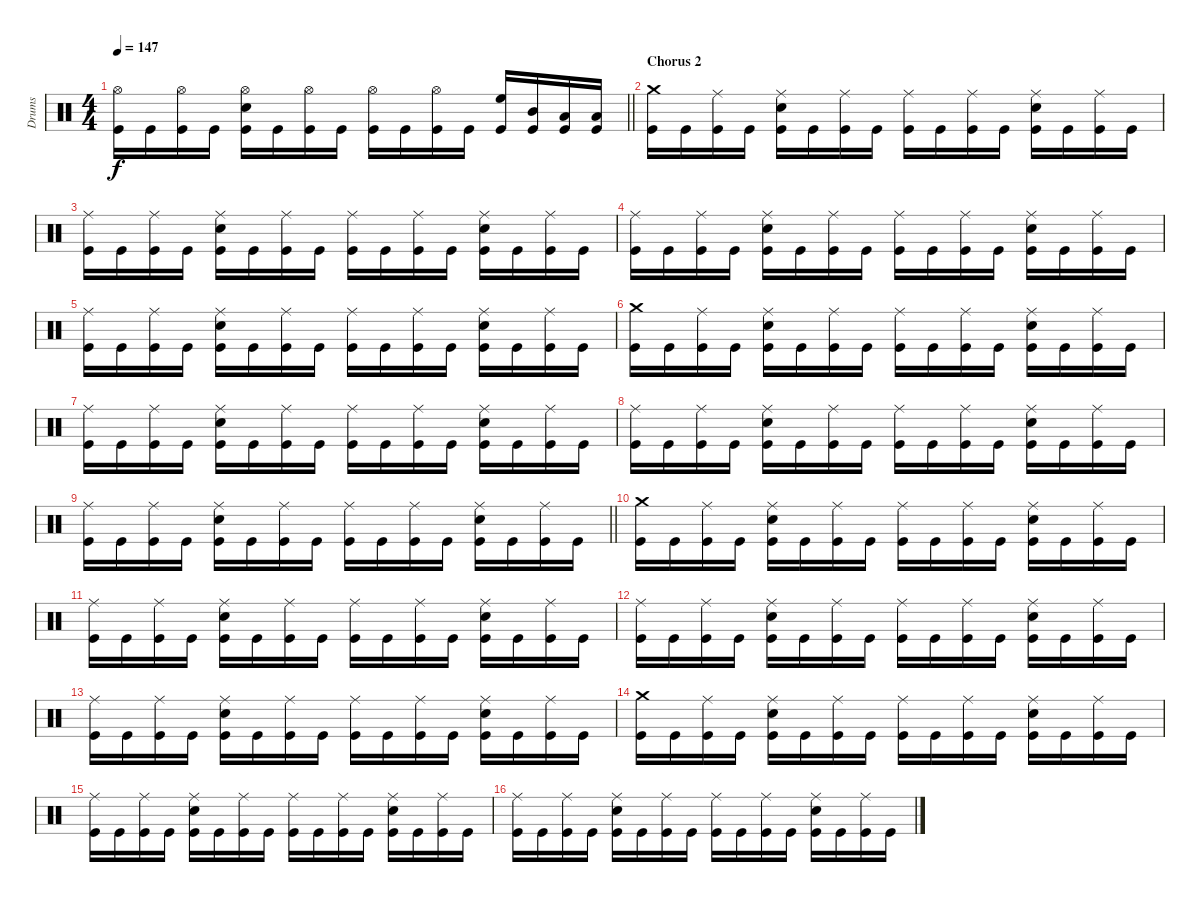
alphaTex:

\track ("Drums" "Drums") {instrument percussion}
\staff {score}
\articulation defaults
\ts (4 4)
\tempo 147
\clef neutral
\barLineRight lightlight
\ks c
("Hi-Hat (open)" "Kick (hit)").16{dy f} "Kick (hit)".16 ("Hi-Hat (open)" "Kick (hit)").16 "Kick (hit)".16 ("Electric Snare (hit)" "Hi-Hat (open)" "Kick (hit)").16 "Kick (hit)".16 ("Hi-Hat (open)" "Kick (hit)").16 "Kick (hit)".16 ("Hi-Hat (open)" "Kick (hit)").16 "Kick (hit)".16 ("Hi-Hat (open)" "Kick (hit)").16 "Kick (hit)".16 ("High Floor Tom (hit)" "Kick (hit)").16 ("Mid Tom (hit)" "Kick (hit)").16 ("Low Tom (hit)" "Kick (hit)").16 ("Low Floor Tom (hit)" "Kick (hit)").16 |
\section ("" "Chorus 2")
("Crash medium (hit)" "Kick (hit)").16 "Kick (hit)".16 ("Ride (middle)" "Kick (hit)").16 "Kick (hit)".16 ("Electric Snare (hit)" "Ride (middle)" "Kick (hit)").16 "Kick (hit)".16 ("Ride (middle)" "Kick (hit)").16 "Kick (hit)".16 ("Ride (middle)" "Kick (hit)").16 "Kick (hit)".16 ("Ride (middle)" "Kick (hit)").16 "Kick (hit)".16 ("Electric Snare (hit)" "Ride (middle)" "Kick (hit)").16 "Kick (hit)".16 ("Ride (middle)" "Kick (hit)").16 "Kick (hit)".16 |
("Ride (middle)" "Kick (hit)").16 "Kick (hit)".16 ("Ride (middle)" "Kick (hit)").16 "Kick (hit)".16 ("Electric Snare (hit)" "Ride (middle)" "Kick (hit)").16 "Kick (hit)".16 ("Ride (middle)" "Kick (hit)").16 "Kick (hit)".16 ("Ride (middle)" "Kick (hit)").16 "Kick (hit)".16 ("Ride (middle)" "Kick (hit)").16 "Kick (hit)".16 ("Electric Snare (hit)" "Ride (middle)" "Kick (hit)").16 "Kick (hit)".16 ("Ride (middle)" "Kick (hit)").16 "Kick (hit)".16 |
("Ride (middle)" "Kick (hit)").16 "Kick (hit)".16 ("Ride (middle)" "Kick (hit)").16 "Kick (hit)".16 ("Electric Snare (hit)" "Ride (middle)" "Kick (hit)").16 "Kick (hit)".16 ("Ride (middle)" "Kick (hit)").16 "Kick (hit)".16 ("Ride (middle)" "Kick (hit)").16 "Kick (hit)".16 ("Ride (middle)" "Kick (hit)").16 "Kick (hit)".16 ("Electric Snare (hit)" "Ride (middle)" "Kick (hit)").16 "Kick (hit)".16 ("Ride (middle)" "Kick (hit)").16 "Kick (hit)".16 |
("Ride (middle)" "Kick (hit)").16 "Kick (hit)".16 ("Ride (middle)" "Kick (hit)").16 "Kick (hit)".16 ("Electric Snare (hit)" "Ride (middle)" "Kick (hit)").16 "Kick (hit)".16 ("Ride (middle)" "Kick (hit)").16 "Kick (hit)".16 ("Ride (middle)" "Kick (hit)").16 "Kick (hit)".16 ("Ride (middle)" "Kick (hit)").16 "Kick (hit)".16 ("Electric Snare (hit)" "Ride (middle)" "Kick (hit)").16 "Kick (hit)".16 ("Ride (middle)" "Kick (hit)").16 "Kick (hit)".16 |
("Crash medium (hit)" "Kick (hit)").16 "Kick (hit)".16 ("Ride (middle)" "Kick (hit)").16 "Kick (hit)".16 ("Electric Snare (hit)" "Ride (middle)" "Kick (hit)").16 "Kick (hit)".16 ("Ride (middle)" "Kick (hit)").16 "Kick (hit)".16 ("Ride (middle)" "Kick (hit)").16 "Kick (hit)".16 ("Ride (middle)" "Kick (hit)").16 "Kick (hit)".16 ("Electric Snare (hit)" "Ride (middle)" "Kick (hit)").16 "Kick (hit)".16 ("Ride (middle)" "Kick (hit)").16 "Kick (hit)".16 |
("Ride (middle)" "Kick (hit)").16 "Kick (hit)".16 ("Ride (middle)" "Kick (hit)").16 "Kick (hit)".16 ("Electric Snare (hit)" "Ride (middle)" "Kick (hit)").16 "Kick (hit)".16 ("Ride (middle)" "Kick (hit)").16 "Kick (hit)".16 ("Ride (middle)" "Kick (hit)").16 "Kick (hit)".16 ("Ride (middle)" "Kick (hit)").16 "Kick (hit)".16 ("Electric Snare (hit)" "Ride (middle)" "Kick (hit)").16 "Kick (hit)".16 ("Ride (middle)" "Kick (hit)").16 "Kick (hit)".16 |
("Ride (middle)" "Kick (hit)").16 "Kick (hit)".16 ("Ride (middle)" "Kick (hit)").16 "Kick (hit)".16 ("Electric Snare (hit)" "Ride (middle)" "Kick (hit)").16 "Kick (hit)".16 ("Ride (middle)" "Kick (hit)").16 "Kick (hit)".16 ("Ride (middle)" "Kick (hit)").16 "Kick (hit)".16 ("Ride (middle)" "Kick (hit)").16 "Kick (hit)".16 ("Electric Snare (hit)" "Ride (middle)" "Kick (hit)").16 "Kick (hit)".16 ("Ride (middle)" "Kick (hit)").16 "Kick (hit)".16 |
\barLineRight lightlight
("Ride (middle)" "Kick (hit)").16 "Kick (hit)".16 ("Ride (middle)" "Kick (hit)").16 "Kick (hit)".16 ("Electric Snare (hit)" "Ride (middle)" "Kick (hit)").16 "Kick (hit)".16 ("Ride (middle)" "Kick (hit)").16 "Kick (hit)".16 ("Ride (middle)" "Kick (hit)").16 "Kick (hit)".16 ("Ride (middle)" "Kick (hit)").16 "Kick (hit)".16 ("Electric Snare (hit)" "Ride (middle)" "Kick (hit)").16 "Kick (hit)".16 ("Ride (middle)" "Kick (hit)").16 "Kick (hit)".16 |
("Crash medium (hit)" "Kick (hit)").16 "Kick (hit)".16 ("Ride (middle)" "Kick (hit)").16 "Kick (hit)".16 ("Electric Snare (hit)" "Ride (middle)" "Kick (hit)").16 "Kick (hit)".16 ("Ride (middle)" "Kick (hit)").16 "Kick (hit)".16 ("Ride (middle)" "Kick (hit)").16 "Kick (hit)".16 ("Ride (middle)" "Kick (hit)").16 "Kick (hit)".16 ("Electric Snare (hit)" "Ride (middle)" "Kick (hit)").16 "Kick (hit)".16 ("Ride (middle)" "Kick (hit)").16 "Kick (hit)".16 |
("Ride (middle)" "Kick (hit)").16 "Kick (hit)".16 ("Ride (middle)" "Kick (hit)").16 "Kick (hit)".16 ("Electric Snare (hit)" "Ride (middle)" "Kick (hit)").16 "Kick (hit)".16 ("Ride (middle)" "Kick (hit)").16 "Kick (hit)".16 ("Ride (middle)" "Kick (hit)").16 "Kick (hit)".16 ("Ride (middle)" "Kick (hit)").16 "Kick (hit)".16 ("Electric Snare (hit)" "Ride (middle)" "Kick (hit)").16 "Kick (hit)".16 ("Ride (middle)" "Kick (hit)").16 "Kick (hit)".16 |
("Ride (middle)" "Kick (hit)").16 "Kick (hit)".16 ("Ride (middle)" "Kick (hit)").16 "Kick (hit)".16 ("Electric Snare (hit)" "Ride (middle)" "Kick (hit)").16 "Kick (hit)".16 ("Ride (middle)" "Kick (hit)").16 "Kick (hit)".16 ("Ride (middle)" "Kick (hit)").16 "Kick (hit)".16 ("Ride (middle)" "Kick (hit)").16 "Kick (hit)".16 ("Electric Snare (hit)" "Ride (middle)" "Kick (hit)").16 "Kick (hit)".16 ("Ride (middle)" "Kick (hit)").16 "Kick (hit)".16 |
("Ride (middle)" "Kick (hit)").16 "Kick (hit)".16 ("Ride (middle)" "Kick (hit)").16 "Kick (hit)".16 ("Electric Snare (hit)" "Ride (middle)" "Kick (hit)").16 "Kick (hit)".16 ("Ride (middle)" "Kick (hit)").16 "Kick (hit)".16 ("Ride (middle)" "Kick (hit)").16 "Kick (hit)".16 ("Ride (middle)" "Kick (hit)").16 "Kick (hit)".16 ("Electric Snare (hit)" "Ride (middle)" "Kick (hit)").16 "Kick (hit)".16 ("Ride (middle)" "Kick (hit)").16 "Kick (hit)".16 |
("Crash medium (hit)" "Kick (hit)").16 "Kick (hit)".16 ("Ride (middle)" "Kick (hit)").16 "Kick (hit)".16 ("Electric Snare (hit)" "Ride (middle)" "Kick (hit)").16 "Kick (hit)".16 ("Ride (middle)" "Kick (hit)").16 "Kick (hit)".16 ("Ride (middle)" "Kick (hit)").16 "Kick (hit)".16 ("Ride (middle)" "Kick (hit)").16 "Kick (hit)".16 ("Electric Snare (hit)" "Ride (middle)" "Kick (hit)").16 "Kick (hit)".16 ("Ride (middle)" "Kick (hit)").16 "Kick (hit)".16 |
("Ride (middle)" "Kick (hit)").16 "Kick (hit)".16 ("Ride (middle)" "Kick (hit)").16 "Kick (hit)".16 ("Electric Snare (hit)" "Ride (middle)" "Kick (hit)").16 "Kick (hit)".16 ("Ride (middle)" "Kick (hit)").16 "Kick (hit)".16 ("Ride (middle)" "Kick (hit)").16 "Kick (hit)".16 ("Ride (middle)" "Kick (hit)").16 "Kick (hit)".16 ("Electric Snare (hit)" "Ride (middle)" "Kick (hit)").16 "Kick (hit)".16 ("Ride (middle)" "Kick (hit)").16 "Kick (hit)".16 |
("Ride (middle)" "Kick (hit)").16 "Kick (hit)".16 ("Ride (middle)" "Kick (hit)").16 "Kick (hit)".16 ("Electric Snare (hit)" "Ride (middle)" "Kick (hit)").16 "Kick (hit)".16 ("Ride (middle)" "Kick (hit)").16 "Kick (hit)".16 ("Ride (middle)" "Kick (hit)").16 "Kick (hit)".16 ("Ride (middle)" "Kick (hit)").16 "Kick (hit)".16 ("Electric Snare (hit)" "Ride (middle)" "Kick (hit)").16 "Kick (hit)".16 ("Ride (middle)" "Kick (hit)").16 "Kick (hit)".16
